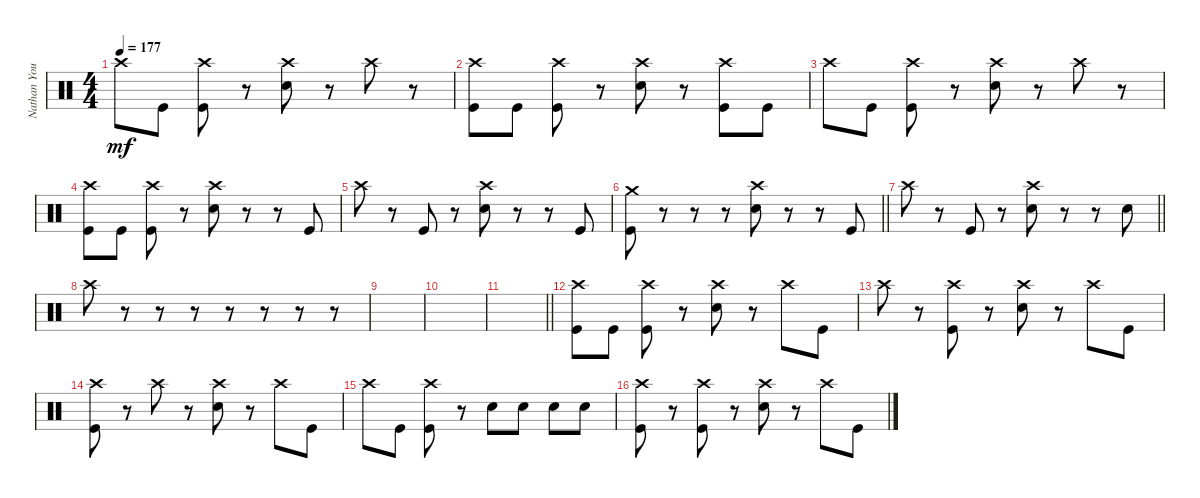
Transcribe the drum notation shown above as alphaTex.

\track ("Nathan Young" "Nathan You") {instrument percussion}
\staff {score}
\articulation defaults
\ts (4 4)
\tempo 177
\clef neutral
\ks c "Crash high (hit)".8{dy mf} "Kick (hit)".8
("Crash high (hit)" "Kick (hit)").8 r.8 ("Crash high (hit)" "Snare (hit) 2").8 r.8 "Crash high (hit)".8 r.8 |
("Crash high (hit)" "Kick (hit)").8 "Kick (hit)".8 ("Crash high (hit)" "Kick (hit)").8 r.8 ("Crash high (hit)" "Snare (hit) 2").8 r.8 ("Crash high (hit)" "Kick (hit)").8 "Kick (hit)".8 |
"Crash high (hit)".8 "Kick (hit)".8 ("Crash high (hit)" "Kick (hit)").8 r.8 ("Crash high (hit)" "Snare (hit) 2").8 r.8 "Crash high (hit)".8 r.8 |
("Crash high (hit)" "Kick (hit)").8 "Kick (hit)".8 ("Crash high (hit)" "Kick (hit)").8 r.8 ("Crash high (hit)" "Snare (hit) 2").8 r.8 r.8 "Kick (hit)".8 |
"Crash high (hit)".8 r.8 "Kick (hit)".8 r.8 ("Crash high (hit)" "Snare (hit) 2").8 r.8 r.8 "Kick (hit)".8 |
\barLineRight lightlight
("Crash medium (hit)" "Kick (hit)").8 r.8 r.8 r.8 ("Crash high (hit)" "Snare (hit) 2").8 r.8 r.8 "Kick (hit)".8 |
\barLineRight lightlight "Crash high (hit)".8
r.8 "Kick (hit)".8 r.8 ("Crash high (hit)" "Snare (hit) 2").8 r.8 r.8 "Snare (hit) 2".8 |
"Crash high (hit)".8 r.8 r.8 r.8 r.8 r.8 r.8 r.8 |
|
|
\barLineRight lightlight
|
("Crash high (hit)" "Kick (hit)").8 "Kick (hit)".8 ("Crash high (hit)" "Kick (hit)").8 r.8 ("Crash high (hit)" "Snare (hit) 2").8 r.8 "Crash high (hit)".8 "Kick (hit)".8 |
"Crash high (hit)".8 r.8 ("Crash high (hit)" "Kick (hit)").8 r.8 ("Crash high (hit)" "Snare (hit) 2").8 r.8 "Crash high (hit)".8 "Kick (hit)".8 |
("Crash high (hit)" "Kick (hit)").8 r.8 "Crash high (hit)".8 r.8 ("Crash high (hit)" "Snare (hit) 2").8 r.8 "Crash high (hit)".8 "Kick (hit)".8 |
"Crash high (hit)".8 "Kick (hit)".8 ("Crash high (hit)" "Kick (hit)").8 r.8 "Snare (hit) 2".8 "Snare (hit) 2".8 "Snare (hit) 2".8 "Snare (hit) 2".8 |
("Crash high (hit)" "Kick (hit)").8 r.8 ("Crash high (hit)" "Kick (hit)").8 r.8 ("Crash high (hit)" "Snare (hit) 2").8 r.8 "Crash high (hit)".8 "Kick (hit)".8
